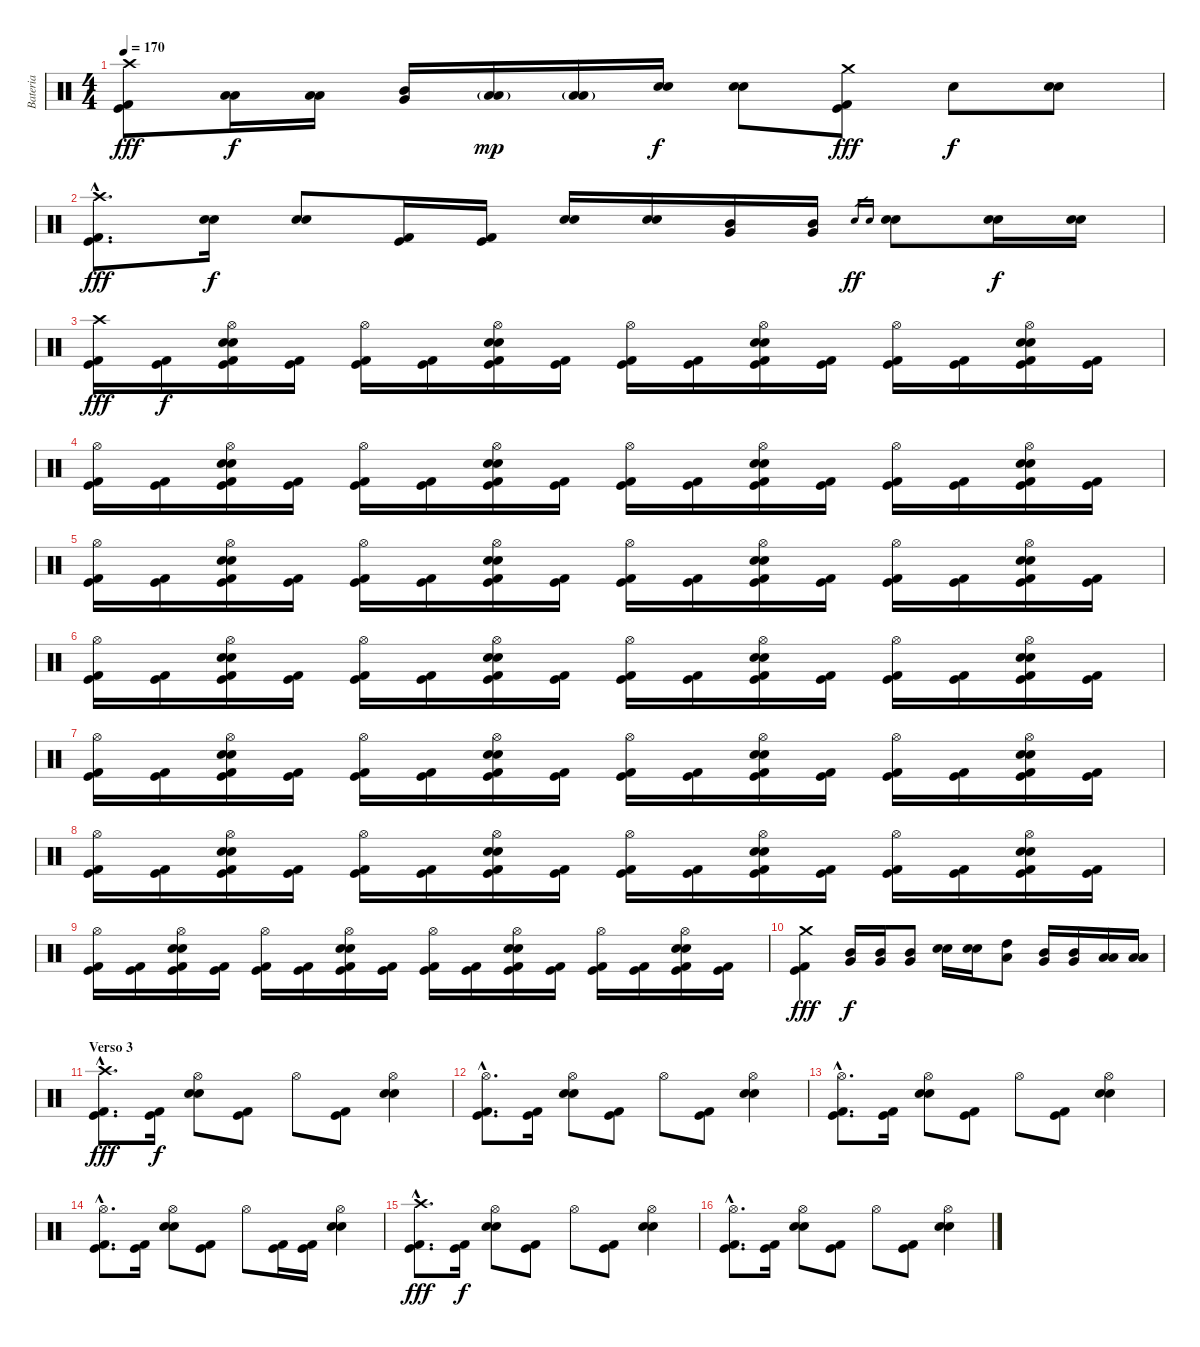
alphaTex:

\track ("Bateria" "Bateria") {instrument percussion}
\staff {score}
\articulation defaults
\ts (4 4)
\tempo 170
\clef neutral
\ks c
("Crash high (hit)" "Kick (hit) 2" "Kick (hit)").8{dy fff} ("Low Tom (hit)" "Low Floor Tom (hit)").16{dy f} ("Low Tom (hit)" "Low Floor Tom (hit)").16 ("Mid Tom (hit)" "Very Low Tom (hit)").16 ("Low Tom (hit)"{g} "Low Floor Tom (hit)"{g}).16{dy mp} ("Low Tom (hit)"{g} "Low Floor Tom (hit)"{g}).16 ("Electric Snare (hit)" "Snare (hit) 2").16{dy f} ("Electric Snare (hit)" "Snare (hit) 2").8 ("Crash medium (hit)" "Kick (hit) 2" "Kick (hit)").8{dy fff} "Snare (hit)"{x}.8{dy f} ("Electric Snare (hit)" "Snare (hit) 2").8 |
("Crash high (hit)"{hac} "Kick (hit) 2"{hac} "Kick (hit)"{hac}).8{d dy fff} ("Electric Snare (hit)" "Snare (hit) 2").16{dy f} ("Electric Snare (hit)" "Snare (hit) 2").8 ("Kick (hit) 2" "Kick (hit)").16 ("Kick (hit) 2" "Kick (hit)").16 ("Electric Snare (hit)" "Snare (hit) 2").16 ("Electric Snare (hit)" "Snare (hit) 2").16 ("Mid Tom (hit)" "Very Low Tom (hit)").16 ("Mid Tom (hit)" "Very Low Tom (hit)").16 "Electric Snare (hit)".16{gr dy ff} "Snare (hit) 2".16{gr} ("Electric Snare (hit)" "Snare (hit) 2").8 ("Electric Snare (hit)" "Snare (hit) 2").16{dy f} ("Electric Snare (hit)" "Snare (hit) 2").16 |
("Crash high (hit)" "Kick (hit) 2" "Kick (hit)").16{dy fff} ("Kick (hit) 2" "Kick (hit)").16{dy f} ("Hi-Hat (open)" "Electric Snare (hit)" "Snare (hit) 2" "Kick (hit) 2" "Kick (hit)").16 ("Kick (hit) 2" "Kick (hit)").16 ("Hi-Hat (open)" "Kick (hit) 2" "Kick (hit)").16 ("Kick (hit) 2" "Kick (hit)").16 ("Hi-Hat (open)" "Electric Snare (hit)" "Snare (hit) 2" "Kick (hit) 2" "Kick (hit)").16 ("Kick (hit) 2" "Kick (hit)").16 ("Hi-Hat (open)" "Kick (hit) 2" "Kick (hit)").16 ("Kick (hit) 2" "Kick (hit)").16 ("Hi-Hat (open)" "Electric Snare (hit)" "Snare (hit) 2" "Kick (hit) 2" "Kick (hit)").16 ("Kick (hit) 2" "Kick (hit)").16 ("Hi-Hat (open)" "Kick (hit) 2" "Kick (hit)").16 ("Kick (hit) 2" "Kick (hit)").16 ("Hi-Hat (open)" "Electric Snare (hit)" "Snare (hit) 2" "Kick (hit) 2" "Kick (hit)").16 ("Kick (hit) 2" "Kick (hit)").16 |
("Hi-Hat (open)" "Kick (hit) 2" "Kick (hit)").16 ("Kick (hit) 2" "Kick (hit)").16 ("Hi-Hat (open)" "Electric Snare (hit)" "Snare (hit) 2" "Kick (hit) 2" "Kick (hit)").16 ("Kick (hit) 2" "Kick (hit)").16 ("Hi-Hat (open)" "Kick (hit) 2" "Kick (hit)").16 ("Kick (hit) 2" "Kick (hit)").16 ("Hi-Hat (open)" "Electric Snare (hit)" "Snare (hit) 2" "Kick (hit) 2" "Kick (hit)").16 ("Kick (hit) 2" "Kick (hit)").16 ("Hi-Hat (open)" "Kick (hit) 2" "Kick (hit)").16 ("Kick (hit) 2" "Kick (hit)").16 ("Hi-Hat (open)" "Electric Snare (hit)" "Snare (hit) 2" "Kick (hit) 2" "Kick (hit)").16 ("Kick (hit) 2" "Kick (hit)").16 ("Hi-Hat (open)" "Kick (hit) 2" "Kick (hit)").16 ("Kick (hit) 2" "Kick (hit)").16 ("Hi-Hat (open)" "Electric Snare (hit)" "Snare (hit) 2" "Kick (hit) 2" "Kick (hit)").16 ("Kick (hit) 2" "Kick (hit)").16 |
("Hi-Hat (open)" "Kick (hit) 2" "Kick (hit)").16 ("Kick (hit) 2" "Kick (hit)").16 ("Hi-Hat (open)" "Electric Snare (hit)" "Snare (hit) 2" "Kick (hit) 2" "Kick (hit)").16 ("Kick (hit) 2" "Kick (hit)").16 ("Hi-Hat (open)" "Kick (hit) 2" "Kick (hit)").16 ("Kick (hit) 2" "Kick (hit)").16 ("Hi-Hat (open)" "Electric Snare (hit)" "Snare (hit) 2" "Kick (hit) 2" "Kick (hit)").16 ("Kick (hit) 2" "Kick (hit)").16 ("Hi-Hat (open)" "Kick (hit) 2" "Kick (hit)").16 ("Kick (hit) 2" "Kick (hit)").16 ("Hi-Hat (open)" "Electric Snare (hit)" "Snare (hit) 2" "Kick (hit) 2" "Kick (hit)").16 ("Kick (hit) 2" "Kick (hit)").16 ("Hi-Hat (open)" "Kick (hit) 2" "Kick (hit)").16 ("Kick (hit) 2" "Kick (hit)").16 ("Hi-Hat (open)" "Electric Snare (hit)" "Snare (hit) 2" "Kick (hit) 2" "Kick (hit)").16 ("Kick (hit) 2" "Kick (hit)").16 |
("Hi-Hat (open)" "Kick (hit) 2" "Kick (hit)").16 ("Kick (hit) 2" "Kick (hit)").16 ("Hi-Hat (open)" "Electric Snare (hit)" "Snare (hit) 2" "Kick (hit) 2" "Kick (hit)").16 ("Kick (hit) 2" "Kick (hit)").16 ("Hi-Hat (open)" "Kick (hit) 2" "Kick (hit)").16 ("Kick (hit) 2" "Kick (hit)").16 ("Hi-Hat (open)" "Electric Snare (hit)" "Snare (hit) 2" "Kick (hit) 2" "Kick (hit)").16 ("Kick (hit) 2" "Kick (hit)").16 ("Hi-Hat (open)" "Kick (hit) 2" "Kick (hit)").16 ("Kick (hit) 2" "Kick (hit)").16 ("Hi-Hat (open)" "Electric Snare (hit)" "Snare (hit) 2" "Kick (hit) 2" "Kick (hit)").16 ("Kick (hit) 2" "Kick (hit)").16 ("Hi-Hat (open)" "Kick (hit) 2" "Kick (hit)").16 ("Kick (hit) 2" "Kick (hit)").16 ("Hi-Hat (open)" "Electric Snare (hit)" "Snare (hit) 2" "Kick (hit) 2" "Kick (hit)").16 ("Kick (hit) 2" "Kick (hit)").16 |
("Hi-Hat (open)" "Kick (hit) 2" "Kick (hit)").16 ("Kick (hit) 2" "Kick (hit)").16 ("Hi-Hat (open)" "Electric Snare (hit)" "Snare (hit) 2" "Kick (hit) 2" "Kick (hit)").16 ("Kick (hit) 2" "Kick (hit)").16 ("Hi-Hat (open)" "Kick (hit) 2" "Kick (hit)").16 ("Kick (hit) 2" "Kick (hit)").16 ("Hi-Hat (open)" "Electric Snare (hit)" "Snare (hit) 2" "Kick (hit) 2" "Kick (hit)").16 ("Kick (hit) 2" "Kick (hit)").16 ("Hi-Hat (open)" "Kick (hit) 2" "Kick (hit)").16 ("Kick (hit) 2" "Kick (hit)").16 ("Hi-Hat (open)" "Electric Snare (hit)" "Snare (hit) 2" "Kick (hit) 2" "Kick (hit)").16 ("Kick (hit) 2" "Kick (hit)").16 ("Hi-Hat (open)" "Kick (hit) 2" "Kick (hit)").16 ("Kick (hit) 2" "Kick (hit)").16 ("Hi-Hat (open)" "Electric Snare (hit)" "Snare (hit) 2" "Kick (hit) 2" "Kick (hit)").16 ("Kick (hit) 2" "Kick (hit)").16 |
("Hi-Hat (open)" "Kick (hit) 2" "Kick (hit)").16 ("Kick (hit) 2" "Kick (hit)").16 ("Hi-Hat (open)" "Electric Snare (hit)" "Snare (hit) 2" "Kick (hit) 2" "Kick (hit)").16 ("Kick (hit) 2" "Kick (hit)").16 ("Hi-Hat (open)" "Kick (hit) 2" "Kick (hit)").16 ("Kick (hit) 2" "Kick (hit)").16 ("Hi-Hat (open)" "Electric Snare (hit)" "Snare (hit) 2" "Kick (hit) 2" "Kick (hit)").16 ("Kick (hit) 2" "Kick (hit)").16 ("Hi-Hat (open)" "Kick (hit) 2" "Kick (hit)").16 ("Kick (hit) 2" "Kick (hit)").16 ("Hi-Hat (open)" "Electric Snare (hit)" "Snare (hit) 2" "Kick (hit) 2" "Kick (hit)").16 ("Kick (hit) 2" "Kick (hit)").16 ("Hi-Hat (open)" "Kick (hit) 2" "Kick (hit)").16 ("Kick (hit) 2" "Kick (hit)").16 ("Hi-Hat (open)" "Electric Snare (hit)" "Snare (hit) 2" "Kick (hit) 2" "Kick (hit)").16 ("Kick (hit) 2" "Kick (hit)").16 |
("Hi-Hat (open)" "Kick (hit) 2" "Kick (hit)").16 ("Kick (hit) 2" "Kick (hit)").16 ("Hi-Hat (open)" "Electric Snare (hit)" "Snare (hit) 2" "Kick (hit) 2" "Kick (hit)").16 ("Kick (hit) 2" "Kick (hit)").16 ("Hi-Hat (open)" "Kick (hit) 2" "Kick (hit)").16 ("Kick (hit) 2" "Kick (hit)").16 ("Hi-Hat (open)" "Electric Snare (hit)" "Snare (hit) 2" "Kick (hit) 2" "Kick (hit)").16 ("Kick (hit) 2" "Kick (hit)").16 ("Hi-Hat (open)" "Kick (hit) 2" "Kick (hit)").16 ("Kick (hit) 2" "Kick (hit)").16 ("Hi-Hat (open)" "Electric Snare (hit)" "Snare (hit) 2" "Kick (hit) 2" "Kick (hit)").16 ("Kick (hit) 2" "Kick (hit)").16 ("Hi-Hat (open)" "Kick (hit) 2" "Kick (hit)").16 ("Kick (hit) 2" "Kick (hit)").16 ("Hi-Hat (open)" "Electric Snare (hit)" "Snare (hit) 2" "Kick (hit) 2" "Kick (hit)").16 ("Kick (hit) 2" "Kick (hit)").16 |
("Crash medium (hit)" "Kick (hit) 2" "Kick (hit)").4{dy fff} ("Mid Tom (hit)" "Very Low Tom (hit)").16{dy f} ("Mid Tom (hit)" "Very Low Tom (hit)").16 ("Mid Tom (hit)" "Very Low Tom (hit)").8 ("Electric Snare (hit)" "Snare (hit) 2").16 ("Electric Snare (hit)" "Snare (hit) 2").16 ("High Tom (hit)" "Low Tom (hit)").8 ("Mid Tom (hit)" "Very Low Tom (hit)").16 ("Mid Tom (hit)" "Very Low Tom (hit)").16 ("Low Tom (hit)" "Low Floor Tom (hit)").16 ("Low Tom (hit)" "Low Floor Tom (hit)").16 |
\section ("" "Verso 3")
("Crash high (hit)"{hac} "Kick (hit) 2"{hac} "Kick (hit)"{hac}).8{d dy fff} ("Kick (hit) 2" "Kick (hit)").16{dy f} ("Hi-Hat (open)" "Electric Snare (hit)" "Snare (hit) 2").8 ("Kick (hit) 2" "Kick (hit)").8 "Hi-Hat (open)".8 ("Kick (hit) 2" "Kick (hit)").8 ("Hi-Hat (open)" "Electric Snare (hit)" "Snare (hit) 2").4 |
("Hi-Hat (open)"{hac} "Kick (hit) 2"{hac} "Kick (hit)"{hac}).8{d} ("Kick (hit) 2" "Kick (hit)").16 ("Hi-Hat (open)" "Electric Snare (hit)" "Snare (hit) 2").8 ("Kick (hit) 2" "Kick (hit)").8 "Hi-Hat (open)".8 ("Kick (hit) 2" "Kick (hit)").8 ("Hi-Hat (open)" "Electric Snare (hit)" "Snare (hit) 2").4 |
("Hi-Hat (open)"{hac} "Kick (hit) 2"{hac} "Kick (hit)"{hac}).8{d} ("Kick (hit) 2" "Kick (hit)").16 ("Hi-Hat (open)" "Electric Snare (hit)" "Snare (hit) 2").8 ("Kick (hit) 2" "Kick (hit)").8 "Hi-Hat (open)".8 ("Kick (hit) 2" "Kick (hit)").8 ("Hi-Hat (open)" "Electric Snare (hit)" "Snare (hit) 2").4 |
("Hi-Hat (open)"{hac} "Kick (hit) 2"{hac} "Kick (hit)"{hac}).8{d} ("Kick (hit) 2" "Kick (hit)").16 ("Hi-Hat (open)" "Electric Snare (hit)" "Snare (hit) 2").8 ("Kick (hit) 2" "Kick (hit)").8 "Hi-Hat (open)".8 ("Kick (hit) 2" "Kick (hit)").16 ("Kick (hit) 2" "Kick (hit)").16 ("Hi-Hat (open)" "Electric Snare (hit)" "Snare (hit) 2").4 |
("Crash high (hit)"{hac} "Kick (hit) 2"{hac} "Kick (hit)"{hac}).8{d dy fff} ("Kick (hit) 2" "Kick (hit)").16{dy f} ("Hi-Hat (open)" "Electric Snare (hit)" "Snare (hit) 2").8 ("Kick (hit) 2" "Kick (hit)").8 "Hi-Hat (open)".8 ("Kick (hit) 2" "Kick (hit)").8 ("Hi-Hat (open)" "Electric Snare (hit)" "Snare (hit) 2").4 |
("Hi-Hat (open)"{hac} "Kick (hit) 2"{hac} "Kick (hit)"{hac}).8{d} ("Kick (hit) 2" "Kick (hit)").16 ("Hi-Hat (open)" "Electric Snare (hit)" "Snare (hit) 2").8 ("Kick (hit) 2" "Kick (hit)").8 "Hi-Hat (open)".8 ("Kick (hit) 2" "Kick (hit)").8 ("Hi-Hat (open)" "Electric Snare (hit)" "Snare (hit) 2").4
